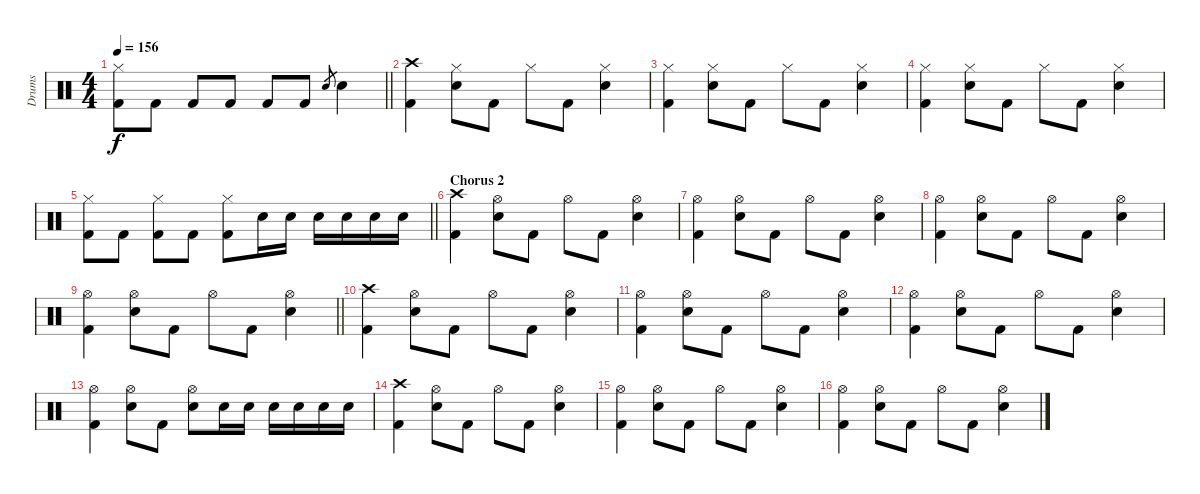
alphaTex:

\track ("Drums" "Drums") {instrument percussion}
\staff {score}
\articulation defaults
\ts (4 4)
\tempo 156
\clef neutral
\barLineRight lightlight
\ks c
("Hi-Hat (closed)" "Kick (hit) 2").8{dy f} "Kick (hit) 2".8 "Kick (hit) 2".8 "Kick (hit) 2".8 "Kick (hit) 2".8 "Kick (hit) 2".8 "Electric Snare (hit)".8{gr} "Electric Snare (hit)".4 |
("Crash high (hit)" "Kick (hit) 2").4 ("Hi-Hat (closed)" "Electric Snare (hit)").8 "Kick (hit) 2".8 "Hi-Hat (closed)".8 "Kick (hit) 2".8 ("Hi-Hat (closed)" "Electric Snare (hit)").4 |
("Hi-Hat (closed)" "Kick (hit) 2").4 ("Hi-Hat (closed)" "Electric Snare (hit)").8 "Kick (hit) 2".8 "Hi-Hat (closed)".8 "Kick (hit) 2".8 ("Hi-Hat (closed)" "Electric Snare (hit)").4 |
("Hi-Hat (closed)" "Kick (hit) 2").4 ("Hi-Hat (closed)" "Electric Snare (hit)").8 "Kick (hit) 2".8 "Hi-Hat (closed)".8 "Kick (hit) 2".8 ("Hi-Hat (closed)" "Electric Snare (hit)").4 |
\barLineRight lightlight
("Hi-Hat (closed)" "Kick (hit) 2").8 "Kick (hit) 2".8 ("Hi-Hat (closed)" "Kick (hit) 2").8 "Kick (hit) 2".8 ("Hi-Hat (closed)" "Kick (hit) 2").8 "Electric Snare (hit)".16 "Electric Snare (hit)".16 "Electric Snare (hit)".16 "Electric Snare (hit)".16 "Electric Snare (hit)".16 "Electric Snare (hit)".16 |
\section ("" "Chorus 2")
("Crash high (hit)" "Kick (hit) 2").4 ("Hi-Hat (open)" "Electric Snare (hit)").8 "Kick (hit) 2".8 "Hi-Hat (open)".8 "Kick (hit) 2".8 ("Hi-Hat (open)" "Electric Snare (hit)").4 |
("Hi-Hat (open)" "Kick (hit) 2").4 ("Hi-Hat (open)" "Electric Snare (hit)").8 "Kick (hit) 2".8 "Hi-Hat (open)".8 "Kick (hit) 2".8 ("Hi-Hat (open)" "Electric Snare (hit)").4 |
("Hi-Hat (open)" "Kick (hit) 2").4 ("Hi-Hat (open)" "Electric Snare (hit)").8 "Kick (hit) 2".8 "Hi-Hat (open)".8 "Kick (hit) 2".8 ("Hi-Hat (open)" "Electric Snare (hit)").4 |
\barLineRight lightlight
("Hi-Hat (open)" "Kick (hit) 2").4 ("Hi-Hat (open)" "Electric Snare (hit)").8 "Kick (hit) 2".8 "Hi-Hat (open)".8 "Kick (hit) 2".8 ("Hi-Hat (open)" "Electric Snare (hit)").4 |
("Crash high (hit)" "Kick (hit) 2").4 ("Hi-Hat (open)" "Electric Snare (hit)").8 "Kick (hit) 2".8 "Hi-Hat (open)".8 "Kick (hit) 2".8 ("Hi-Hat (open)" "Electric Snare (hit)").4 |
("Hi-Hat (open)" "Kick (hit) 2").4 ("Hi-Hat (open)" "Electric Snare (hit)").8 "Kick (hit) 2".8 "Hi-Hat (open)".8 "Kick (hit) 2".8 ("Hi-Hat (open)" "Electric Snare (hit)").4 |
("Hi-Hat (open)" "Kick (hit) 2").4 ("Hi-Hat (open)" "Electric Snare (hit)").8 "Kick (hit) 2".8 "Hi-Hat (open)".8 "Kick (hit) 2".8 ("Hi-Hat (open)" "Electric Snare (hit)").4 |
("Hi-Hat (open)" "Kick (hit) 2").4 ("Hi-Hat (open)" "Electric Snare (hit)").8 "Kick (hit) 2".8 ("Hi-Hat (open)" "Electric Snare (hit)").8 "Electric Snare (hit)".16 "Electric Snare (hit)".16 "Electric Snare (hit)".16 "Electric Snare (hit)".16 "Electric Snare (hit)".16 "Electric Snare (hit)".16 |
("Crash high (hit)" "Kick (hit) 2").4 ("Hi-Hat (open)" "Electric Snare (hit)").8 "Kick (hit) 2".8 "Hi-Hat (open)".8 "Kick (hit) 2".8 ("Hi-Hat (open)" "Electric Snare (hit)").4 |
("Hi-Hat (open)" "Kick (hit) 2").4 ("Hi-Hat (open)" "Electric Snare (hit)").8 "Kick (hit) 2".8 "Hi-Hat (open)".8 "Kick (hit) 2".8 ("Hi-Hat (open)" "Electric Snare (hit)").4 |
("Hi-Hat (open)" "Kick (hit) 2").4 ("Hi-Hat (open)" "Electric Snare (hit)").8 "Kick (hit) 2".8 "Hi-Hat (open)".8 "Kick (hit) 2".8 ("Hi-Hat (open)" "Electric Snare (hit)").4
